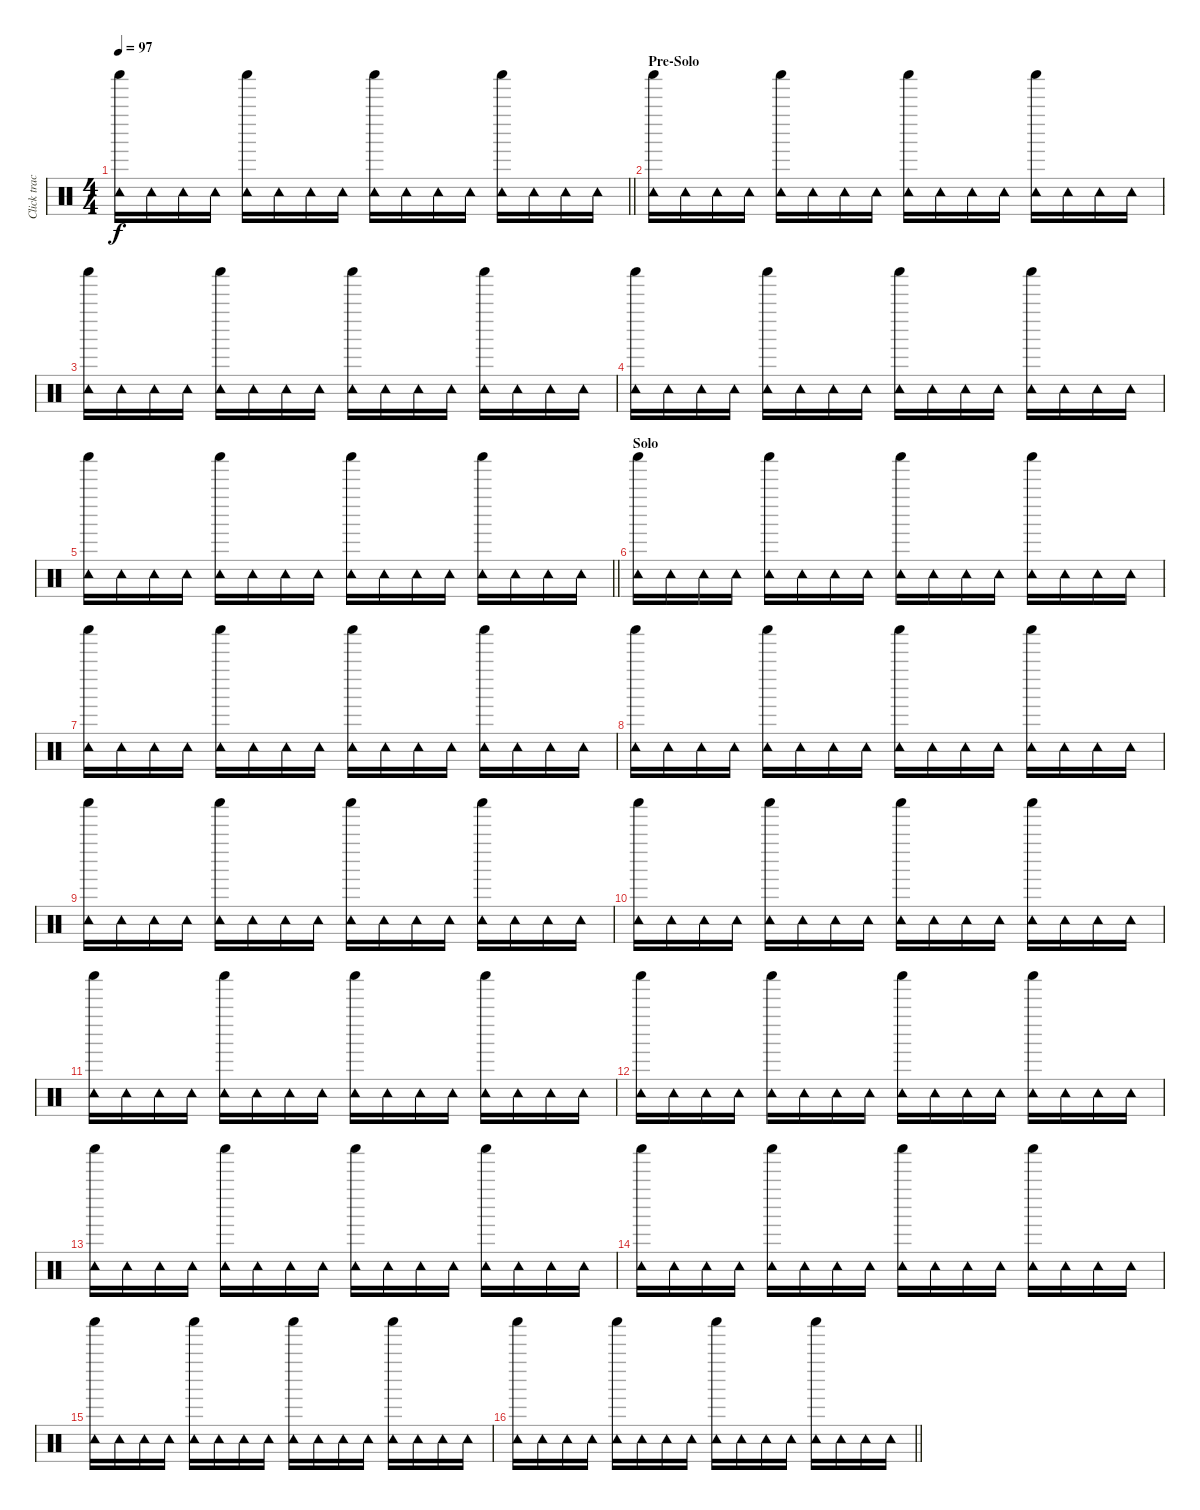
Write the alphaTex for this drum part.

\track ("Click track" "Click trac") {instrument percussion}
\staff {score}
\articulation defaults
\ts (4 4)
\tempo 97
\clef neutral
\barLineRight lightlight
\ks c
("Shaker (hit)" "Tambourine (hit)").16{dy f} "Tambourine (hit)".16 "Tambourine (hit)".16 "Tambourine (hit)".16 ("Shaker (hit)" "Tambourine (hit)").16 "Tambourine (hit)".16 "Tambourine (hit)".16 "Tambourine (hit)".16 ("Shaker (hit)" "Tambourine (hit)").16 "Tambourine (hit)".16 "Tambourine (hit)".16 "Tambourine (hit)".16 ("Shaker (hit)" "Tambourine (hit)").16 "Tambourine (hit)".16 "Tambourine (hit)".16 "Tambourine (hit)".16 |
\section ("" "Pre-Solo")
("Shaker (hit)" "Tambourine (hit)").16 "Tambourine (hit)".16 "Tambourine (hit)".16 "Tambourine (hit)".16 ("Shaker (hit)" "Tambourine (hit)").16 "Tambourine (hit)".16 "Tambourine (hit)".16 "Tambourine (hit)".16 ("Shaker (hit)" "Tambourine (hit)").16 "Tambourine (hit)".16 "Tambourine (hit)".16 "Tambourine (hit)".16 ("Shaker (hit)" "Tambourine (hit)").16 "Tambourine (hit)".16 "Tambourine (hit)".16 "Tambourine (hit)".16 |
("Shaker (hit)" "Tambourine (hit)").16 "Tambourine (hit)".16 "Tambourine (hit)".16 "Tambourine (hit)".16 ("Shaker (hit)" "Tambourine (hit)").16 "Tambourine (hit)".16 "Tambourine (hit)".16 "Tambourine (hit)".16 ("Shaker (hit)" "Tambourine (hit)").16 "Tambourine (hit)".16 "Tambourine (hit)".16 "Tambourine (hit)".16 ("Shaker (hit)" "Tambourine (hit)").16 "Tambourine (hit)".16 "Tambourine (hit)".16 "Tambourine (hit)".16 |
("Shaker (hit)" "Tambourine (hit)").16 "Tambourine (hit)".16 "Tambourine (hit)".16 "Tambourine (hit)".16 ("Shaker (hit)" "Tambourine (hit)").16 "Tambourine (hit)".16 "Tambourine (hit)".16 "Tambourine (hit)".16 ("Shaker (hit)" "Tambourine (hit)").16 "Tambourine (hit)".16 "Tambourine (hit)".16 "Tambourine (hit)".16 ("Shaker (hit)" "Tambourine (hit)").16 "Tambourine (hit)".16 "Tambourine (hit)".16 "Tambourine (hit)".16 |
\barLineRight lightlight
("Shaker (hit)" "Tambourine (hit)").16 "Tambourine (hit)".16 "Tambourine (hit)".16 "Tambourine (hit)".16 ("Shaker (hit)" "Tambourine (hit)").16 "Tambourine (hit)".16 "Tambourine (hit)".16 "Tambourine (hit)".16 ("Shaker (hit)" "Tambourine (hit)").16 "Tambourine (hit)".16 "Tambourine (hit)".16 "Tambourine (hit)".16 ("Shaker (hit)" "Tambourine (hit)").16 "Tambourine (hit)".16 "Tambourine (hit)".16 "Tambourine (hit)".16 |
\section ("" "Solo")
("Shaker (hit)" "Tambourine (hit)").16 "Tambourine (hit)".16 "Tambourine (hit)".16 "Tambourine (hit)".16 ("Shaker (hit)" "Tambourine (hit)").16 "Tambourine (hit)".16 "Tambourine (hit)".16 "Tambourine (hit)".16 ("Shaker (hit)" "Tambourine (hit)").16 "Tambourine (hit)".16 "Tambourine (hit)".16 "Tambourine (hit)".16 ("Shaker (hit)" "Tambourine (hit)").16 "Tambourine (hit)".16 "Tambourine (hit)".16 "Tambourine (hit)".16 |
("Shaker (hit)" "Tambourine (hit)").16 "Tambourine (hit)".16 "Tambourine (hit)".16 "Tambourine (hit)".16 ("Shaker (hit)" "Tambourine (hit)").16 "Tambourine (hit)".16 "Tambourine (hit)".16 "Tambourine (hit)".16 ("Shaker (hit)" "Tambourine (hit)").16 "Tambourine (hit)".16 "Tambourine (hit)".16 "Tambourine (hit)".16 ("Shaker (hit)" "Tambourine (hit)").16 "Tambourine (hit)".16 "Tambourine (hit)".16 "Tambourine (hit)".16 |
("Shaker (hit)" "Tambourine (hit)").16 "Tambourine (hit)".16 "Tambourine (hit)".16 "Tambourine (hit)".16 ("Shaker (hit)" "Tambourine (hit)").16 "Tambourine (hit)".16 "Tambourine (hit)".16 "Tambourine (hit)".16 ("Shaker (hit)" "Tambourine (hit)").16 "Tambourine (hit)".16 "Tambourine (hit)".16 "Tambourine (hit)".16 ("Shaker (hit)" "Tambourine (hit)").16 "Tambourine (hit)".16 "Tambourine (hit)".16 "Tambourine (hit)".16 |
("Shaker (hit)" "Tambourine (hit)").16 "Tambourine (hit)".16 "Tambourine (hit)".16 "Tambourine (hit)".16 ("Shaker (hit)" "Tambourine (hit)").16 "Tambourine (hit)".16 "Tambourine (hit)".16 "Tambourine (hit)".16 ("Shaker (hit)" "Tambourine (hit)").16 "Tambourine (hit)".16 "Tambourine (hit)".16 "Tambourine (hit)".16 ("Shaker (hit)" "Tambourine (hit)").16 "Tambourine (hit)".16 "Tambourine (hit)".16 "Tambourine (hit)".16 |
("Shaker (hit)" "Tambourine (hit)").16 "Tambourine (hit)".16 "Tambourine (hit)".16 "Tambourine (hit)".16 ("Shaker (hit)" "Tambourine (hit)").16 "Tambourine (hit)".16 "Tambourine (hit)".16 "Tambourine (hit)".16 ("Shaker (hit)" "Tambourine (hit)").16 "Tambourine (hit)".16 "Tambourine (hit)".16 "Tambourine (hit)".16 ("Shaker (hit)" "Tambourine (hit)").16 "Tambourine (hit)".16 "Tambourine (hit)".16 "Tambourine (hit)".16 |
("Shaker (hit)" "Tambourine (hit)").16 "Tambourine (hit)".16 "Tambourine (hit)".16 "Tambourine (hit)".16 ("Shaker (hit)" "Tambourine (hit)").16 "Tambourine (hit)".16 "Tambourine (hit)".16 "Tambourine (hit)".16 ("Shaker (hit)" "Tambourine (hit)").16 "Tambourine (hit)".16 "Tambourine (hit)".16 "Tambourine (hit)".16 ("Shaker (hit)" "Tambourine (hit)").16 "Tambourine (hit)".16 "Tambourine (hit)".16 "Tambourine (hit)".16 |
("Shaker (hit)" "Tambourine (hit)").16 "Tambourine (hit)".16 "Tambourine (hit)".16 "Tambourine (hit)".16 ("Shaker (hit)" "Tambourine (hit)").16 "Tambourine (hit)".16 "Tambourine (hit)".16 "Tambourine (hit)".16 ("Shaker (hit)" "Tambourine (hit)").16 "Tambourine (hit)".16 "Tambourine (hit)".16 "Tambourine (hit)".16 ("Shaker (hit)" "Tambourine (hit)").16 "Tambourine (hit)".16 "Tambourine (hit)".16 "Tambourine (hit)".16 |
("Shaker (hit)" "Tambourine (hit)").16 "Tambourine (hit)".16 "Tambourine (hit)".16 "Tambourine (hit)".16 ("Shaker (hit)" "Tambourine (hit)").16 "Tambourine (hit)".16 "Tambourine (hit)".16 "Tambourine (hit)".16 ("Shaker (hit)" "Tambourine (hit)").16 "Tambourine (hit)".16 "Tambourine (hit)".16 "Tambourine (hit)".16 ("Shaker (hit)" "Tambourine (hit)").16 "Tambourine (hit)".16 "Tambourine (hit)".16 "Tambourine (hit)".16 |
("Shaker (hit)" "Tambourine (hit)").16 "Tambourine (hit)".16 "Tambourine (hit)".16 "Tambourine (hit)".16 ("Shaker (hit)" "Tambourine (hit)").16 "Tambourine (hit)".16 "Tambourine (hit)".16 "Tambourine (hit)".16 ("Shaker (hit)" "Tambourine (hit)").16 "Tambourine (hit)".16 "Tambourine (hit)".16 "Tambourine (hit)".16 ("Shaker (hit)" "Tambourine (hit)").16 "Tambourine (hit)".16 "Tambourine (hit)".16 "Tambourine (hit)".16 |
("Shaker (hit)" "Tambourine (hit)").16 "Tambourine (hit)".16 "Tambourine (hit)".16 "Tambourine (hit)".16 ("Shaker (hit)" "Tambourine (hit)").16 "Tambourine (hit)".16 "Tambourine (hit)".16 "Tambourine (hit)".16 ("Shaker (hit)" "Tambourine (hit)").16 "Tambourine (hit)".16 "Tambourine (hit)".16 "Tambourine (hit)".16 ("Shaker (hit)" "Tambourine (hit)").16 "Tambourine (hit)".16 "Tambourine (hit)".16 "Tambourine (hit)".16 |
\barLineRight lightlight
("Shaker (hit)" "Tambourine (hit)").16 "Tambourine (hit)".16 "Tambourine (hit)".16 "Tambourine (hit)".16 ("Shaker (hit)" "Tambourine (hit)").16 "Tambourine (hit)".16 "Tambourine (hit)".16 "Tambourine (hit)".16 ("Shaker (hit)" "Tambourine (hit)").16 "Tambourine (hit)".16 "Tambourine (hit)".16 "Tambourine (hit)".16 ("Shaker (hit)" "Tambourine (hit)").16 "Tambourine (hit)".16 "Tambourine (hit)".16 "Tambourine (hit)".16
